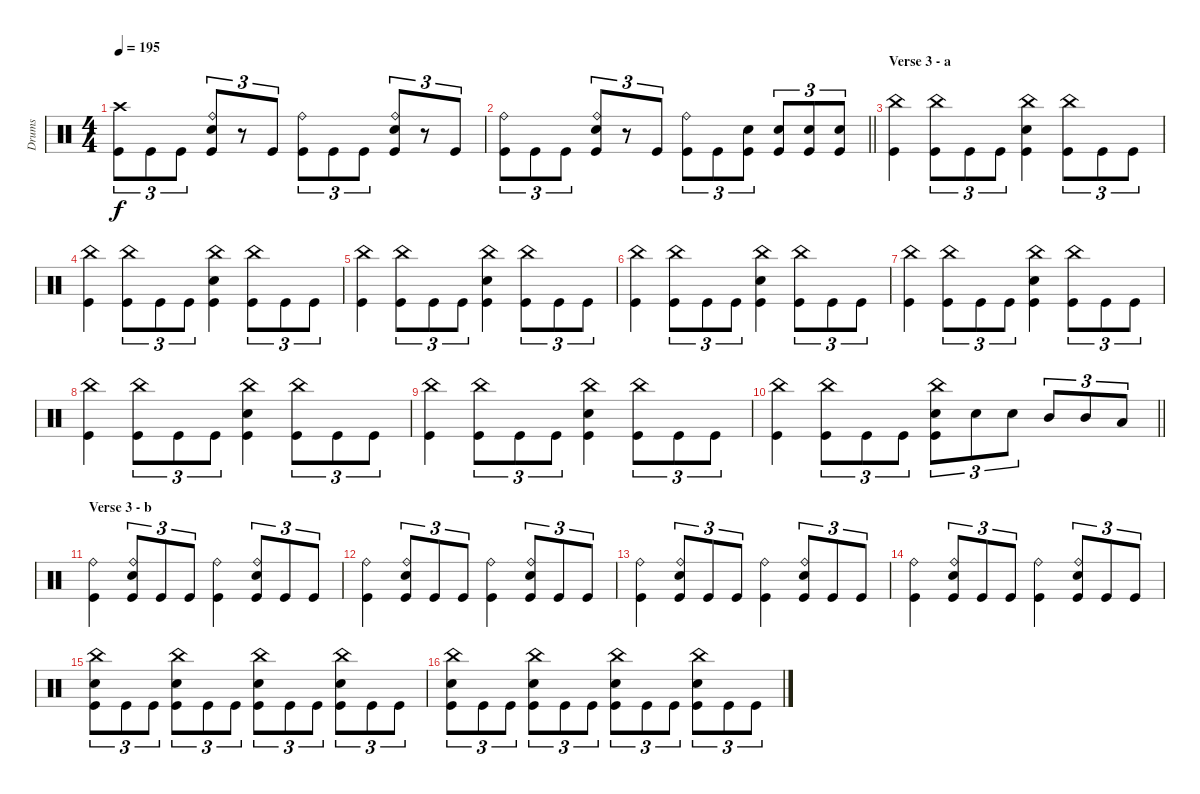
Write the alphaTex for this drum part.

\track ("Drums" "Drums") {instrument percussion}
\staff {score}
\articulation defaults
\ts (4 4)
\tempo 195
\clef neutral
\ks c
("Crash high (hit)" "Kick (hit)").8{tu (3 2) dy f} "Kick (hit)".8{tu (3 2)} "Kick (hit)".8{tu (3 2)} ("Ride (bell)" "Snare (hit) 2" "Kick (hit)").8{tu (3 2)} r.8{tu (3 2)} "Kick (hit)".8{tu (3 2)} ("Ride (bell)" "Kick (hit)").8{tu (3 2)} "Kick (hit)".8{tu (3 2)} "Kick (hit)".8{tu (3 2)} ("Ride (bell)" "Snare (hit) 2" "Kick (hit)").8{tu (3 2)} r.8{tu (3 2)} "Kick (hit)".8{tu (3 2)} |
\barLineRight lightlight
("Ride (bell)" "Kick (hit)").8{tu (3 2)} "Kick (hit)".8{tu (3 2)} "Kick (hit)".8{tu (3 2)} ("Ride (bell)" "Snare (hit) 2" "Kick (hit)").8{tu (3 2)} r.8{tu (3 2)} "Kick (hit)".8{tu (3 2)} ("Ride (bell)" "Kick (hit)").8{tu (3 2)} "Kick (hit)".8{tu (3 2)} ("Snare (hit) 2" "Kick (hit)").8{tu (3 2)} ("Snare (hit) 2" "Kick (hit)").8{tu (3 2)} ("Snare (hit) 2" "Kick (hit)").8{tu (3 2)} ("Snare (hit) 2" "Kick (hit)").8{tu (3 2)} |
\section ("" "Verse 3 - a")
("China (hit)" "Kick (hit)").4 ("China (hit)" "Kick (hit)").8{tu (3 2)} "Kick (hit)".8{tu (3 2)} "Kick (hit)".8{tu (3 2)} ("China (hit)" "Snare (hit) 2" "Kick (hit)").4 ("China (hit)" "Kick (hit)").8{tu (3 2)} "Kick (hit)".8{tu (3 2)} "Kick (hit)".8{tu (3 2)} |
("China (hit)" "Kick (hit)").4 ("China (hit)" "Kick (hit)").8{tu (3 2)} "Kick (hit)".8{tu (3 2)} "Kick (hit)".8{tu (3 2)} ("China (hit)" "Snare (hit) 2" "Kick (hit)").4 ("China (hit)" "Kick (hit)").8{tu (3 2)} "Kick (hit)".8{tu (3 2)} "Kick (hit)".8{tu (3 2)} |
("China (hit)" "Kick (hit)").4 ("China (hit)" "Kick (hit)").8{tu (3 2)} "Kick (hit)".8{tu (3 2)} "Kick (hit)".8{tu (3 2)} ("China (hit)" "Snare (hit) 2" "Kick (hit)").4 ("China (hit)" "Kick (hit)").8{tu (3 2)} "Kick (hit)".8{tu (3 2)} "Kick (hit)".8{tu (3 2)} |
("China (hit)" "Kick (hit)").4 ("China (hit)" "Kick (hit)").8{tu (3 2)} "Kick (hit)".8{tu (3 2)} "Kick (hit)".8{tu (3 2)} ("China (hit)" "Snare (hit) 2" "Kick (hit)").4 ("China (hit)" "Kick (hit)").8{tu (3 2)} "Kick (hit)".8{tu (3 2)} "Kick (hit)".8{tu (3 2)} |
("China (hit)" "Kick (hit)").4 ("China (hit)" "Kick (hit)").8{tu (3 2)} "Kick (hit)".8{tu (3 2)} "Kick (hit)".8{tu (3 2)} ("China (hit)" "Snare (hit) 2" "Kick (hit)").4 ("China (hit)" "Kick (hit)").8{tu (3 2)} "Kick (hit)".8{tu (3 2)} "Kick (hit)".8{tu (3 2)} |
("China (hit)" "Kick (hit)").4 ("China (hit)" "Kick (hit)").8{tu (3 2)} "Kick (hit)".8{tu (3 2)} "Kick (hit)".8{tu (3 2)} ("China (hit)" "Snare (hit) 2" "Kick (hit)").4 ("China (hit)" "Kick (hit)").8{tu (3 2)} "Kick (hit)".8{tu (3 2)} "Kick (hit)".8{tu (3 2)} |
("China (hit)" "Kick (hit)").4 ("China (hit)" "Kick (hit)").8{tu (3 2)} "Kick (hit)".8{tu (3 2)} "Kick (hit)".8{tu (3 2)} ("China (hit)" "Snare (hit) 2" "Kick (hit)").4 ("China (hit)" "Kick (hit)").8{tu (3 2)} "Kick (hit)".8{tu (3 2)} "Kick (hit)".8{tu (3 2)} |
\barLineRight lightlight
("China (hit)" "Kick (hit)").4 ("China (hit)" "Kick (hit)").8{tu (3 2)} "Kick (hit)".8{tu (3 2)} "Kick (hit)".8{tu (3 2)} ("China (hit)" "Snare (hit) 2" "Kick (hit)").8{tu (3 2)} "Snare (hit) 2".8{tu (3 2)} "Snare (hit) 2".8{tu (3 2)} "Mid Tom (hit)".8{tu (3 2)} "Mid Tom (hit)".8{tu (3 2)} "Low Tom (hit)".8{tu (3 2)} |
\section ("" "Verse 3 - b")
("Ride (bell)" "Kick (hit)").4 ("Ride (bell)" "Snare (hit) 2" "Kick (hit)").8{tu (3 2)} "Kick (hit)".8{tu (3 2)} "Kick (hit)".8{tu (3 2)} ("Ride (bell)" "Kick (hit)").4 ("Ride (bell)" "Snare (hit) 2" "Kick (hit)").8{tu (3 2)} "Kick (hit)".8{tu (3 2)} "Kick (hit)".8{tu (3 2)} |
("Ride (bell)" "Kick (hit)").4 ("Ride (bell)" "Snare (hit) 2" "Kick (hit)").8{tu (3 2)} "Kick (hit)".8{tu (3 2)} "Kick (hit)".8{tu (3 2)} ("Ride (bell)" "Kick (hit)").4 ("Ride (bell)" "Snare (hit) 2" "Kick (hit)").8{tu (3 2)} "Kick (hit)".8{tu (3 2)} "Kick (hit)".8{tu (3 2)} |
("Ride (bell)" "Kick (hit)").4 ("Ride (bell)" "Snare (hit) 2" "Kick (hit)").8{tu (3 2)} "Kick (hit)".8{tu (3 2)} "Kick (hit)".8{tu (3 2)} ("Ride (bell)" "Kick (hit)").4 ("Ride (bell)" "Snare (hit) 2" "Kick (hit)").8{tu (3 2)} "Kick (hit)".8{tu (3 2)} "Kick (hit)".8{tu (3 2)} |
("Ride (bell)" "Kick (hit)").4 ("Ride (bell)" "Snare (hit) 2" "Kick (hit)").8{tu (3 2)} "Kick (hit)".8{tu (3 2)} "Kick (hit)".8{tu (3 2)} ("Ride (bell)" "Kick (hit)").4 ("Ride (bell)" "Snare (hit) 2" "Kick (hit)").8{tu (3 2)} "Kick (hit)".8{tu (3 2)} "Kick (hit)".8{tu (3 2)} |
("China (hit)" "Snare (hit) 2" "Kick (hit)").8{tu (3 2)} "Kick (hit)".8{tu (3 2)} "Kick (hit)".8{tu (3 2)} ("China (hit)" "Snare (hit) 2" "Kick (hit)").8{tu (3 2)} "Kick (hit)".8{tu (3 2)} "Kick (hit)".8{tu (3 2)} ("China (hit)" "Snare (hit) 2" "Kick (hit)").8{tu (3 2)} "Kick (hit)".8{tu (3 2)} "Kick (hit)".8{tu (3 2)} ("China (hit)" "Snare (hit) 2" "Kick (hit)").8{tu (3 2)} "Kick (hit)".8{tu (3 2)} "Kick (hit)".8{tu (3 2)} |
("China (hit)" "Snare (hit) 2" "Kick (hit)").8{tu (3 2)} "Kick (hit)".8{tu (3 2)} "Kick (hit)".8{tu (3 2)} ("China (hit)" "Snare (hit) 2" "Kick (hit)").8{tu (3 2)} "Kick (hit)".8{tu (3 2)} "Kick (hit)".8{tu (3 2)} ("China (hit)" "Snare (hit) 2" "Kick (hit)").8{tu (3 2)} "Kick (hit)".8{tu (3 2)} "Kick (hit)".8{tu (3 2)} ("China (hit)" "Snare (hit) 2" "Kick (hit)").8{tu (3 2)} "Kick (hit)".8{tu (3 2)} "Kick (hit)".8{tu (3 2)}
